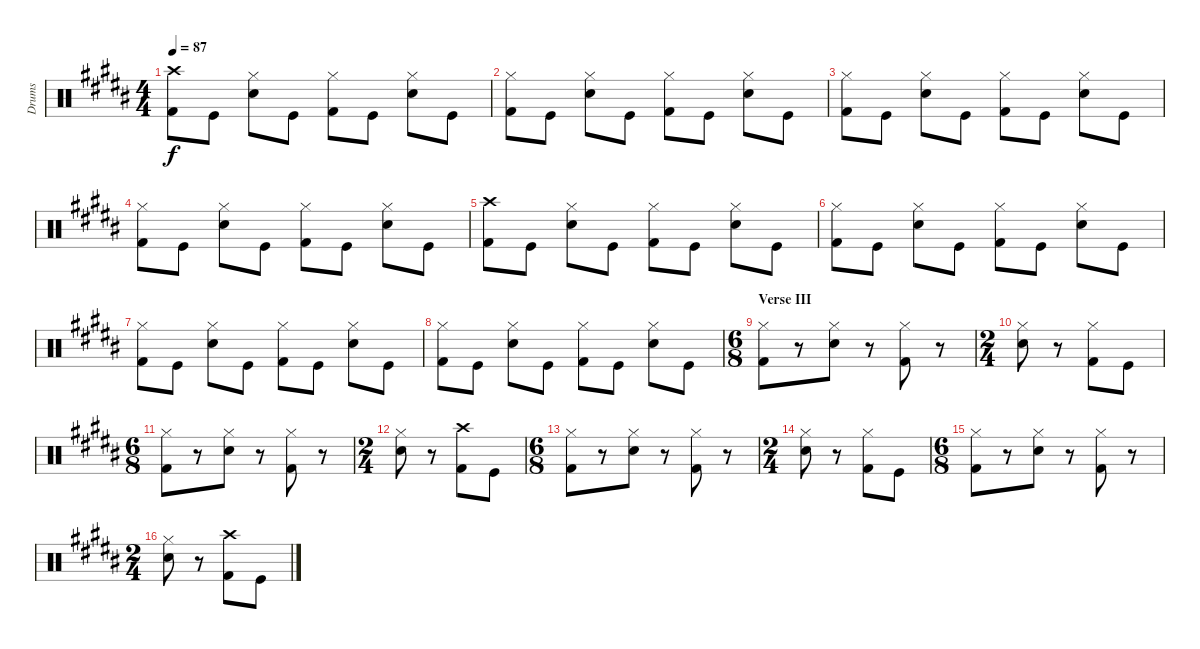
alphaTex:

\track ("Drums" "Drums") {instrument percussion}
\staff {score}
\articulation defaults
\ts (4 4)
\tempo 87
\clef neutral
\ks b
("Crash high (hit)" "Kick (hit) 2").8{dy f} "Kick (hit)".8 ("Hi-Hat (closed)" "Snare (hit) 2").8 "Kick (hit)".8 ("Hi-Hat (closed)" "Kick (hit) 2").8 "Kick (hit)".8 ("Hi-Hat (closed)" "Snare (hit) 2").8 "Kick (hit)".8 |
("Hi-Hat (closed)" "Kick (hit) 2").8 "Kick (hit)".8 ("Hi-Hat (closed)" "Snare (hit) 2").8 "Kick (hit)".8 ("Hi-Hat (closed)" "Kick (hit) 2").8 "Kick (hit)".8 ("Hi-Hat (closed)" "Snare (hit) 2").8 "Kick (hit)".8 |
("Hi-Hat (closed)" "Kick (hit) 2").8 "Kick (hit)".8 ("Hi-Hat (closed)" "Snare (hit) 2").8 "Kick (hit)".8 ("Hi-Hat (closed)" "Kick (hit) 2").8 "Kick (hit)".8 ("Hi-Hat (closed)" "Snare (hit) 2").8 "Kick (hit)".8 |
("Hi-Hat (closed)" "Kick (hit) 2").8 "Kick (hit)".8 ("Hi-Hat (closed)" "Snare (hit) 2").8 "Kick (hit)".8 ("Hi-Hat (closed)" "Kick (hit) 2").8 "Kick (hit)".8 ("Hi-Hat (closed)" "Snare (hit) 2").8 "Kick (hit)".8 |
("Crash high (hit)" "Kick (hit) 2").8 "Kick (hit)".8 ("Hi-Hat (closed)" "Snare (hit) 2").8 "Kick (hit)".8 ("Hi-Hat (closed)" "Kick (hit) 2").8 "Kick (hit)".8 ("Hi-Hat (closed)" "Snare (hit) 2").8 "Kick (hit)".8 |
("Hi-Hat (closed)" "Kick (hit) 2").8 "Kick (hit)".8 ("Hi-Hat (closed)" "Snare (hit) 2").8 "Kick (hit)".8 ("Hi-Hat (closed)" "Kick (hit) 2").8 "Kick (hit)".8 ("Hi-Hat (closed)" "Snare (hit) 2").8 "Kick (hit)".8 |
("Hi-Hat (closed)" "Kick (hit) 2").8 "Kick (hit)".8 ("Hi-Hat (closed)" "Snare (hit) 2").8 "Kick (hit)".8 ("Hi-Hat (closed)" "Kick (hit) 2").8 "Kick (hit)".8 ("Hi-Hat (closed)" "Snare (hit) 2").8 "Kick (hit)".8 |
("Hi-Hat (closed)" "Kick (hit) 2").8 "Kick (hit)".8 ("Hi-Hat (closed)" "Snare (hit) 2").8 "Kick (hit)".8 ("Hi-Hat (closed)" "Kick (hit) 2").8 "Kick (hit)".8 ("Hi-Hat (closed)" "Snare (hit) 2").8 "Kick (hit)".8 |
\ts (6 8)
\section ("" "Verse III")
("Hi-Hat (closed)" "Kick (hit) 2").8 r.8 ("Hi-Hat (closed)" "Snare (hit) 2").8 r.8 ("Hi-Hat (closed)" "Kick (hit) 2").8 r.8 |
\ts (2 4)
("Hi-Hat (closed)" "Snare (hit) 2").8 r.8 ("Hi-Hat (closed)" "Kick (hit) 2").8 "Kick (hit)".8 |
\ts (6 8)
("Hi-Hat (closed)" "Kick (hit) 2").8 r.8 ("Hi-Hat (closed)" "Snare (hit) 2").8 r.8 ("Hi-Hat (closed)" "Kick (hit) 2").8 r.8 |
\ts (2 4)
("Hi-Hat (closed)" "Snare (hit) 2").8 r.8 ("Crash high (hit)" "Kick (hit) 2").8 "Kick (hit)".8 |
\ts (6 8)
("Hi-Hat (closed)" "Kick (hit) 2").8 r.8 ("Hi-Hat (closed)" "Snare (hit) 2").8 r.8 ("Hi-Hat (closed)" "Kick (hit) 2").8 r.8 |
\ts (2 4)
("Hi-Hat (closed)" "Snare (hit) 2").8 r.8 ("Hi-Hat (closed)" "Kick (hit) 2").8 "Kick (hit)".8 |
\ts (6 8)
("Hi-Hat (closed)" "Kick (hit) 2").8 r.8 ("Hi-Hat (closed)" "Snare (hit) 2").8 r.8 ("Hi-Hat (closed)" "Kick (hit) 2").8 r.8 |
\ts (2 4)
("Hi-Hat (closed)" "Snare (hit) 2").8 r.8 ("Crash high (hit)" "Kick (hit) 2").8 "Kick (hit)".8
